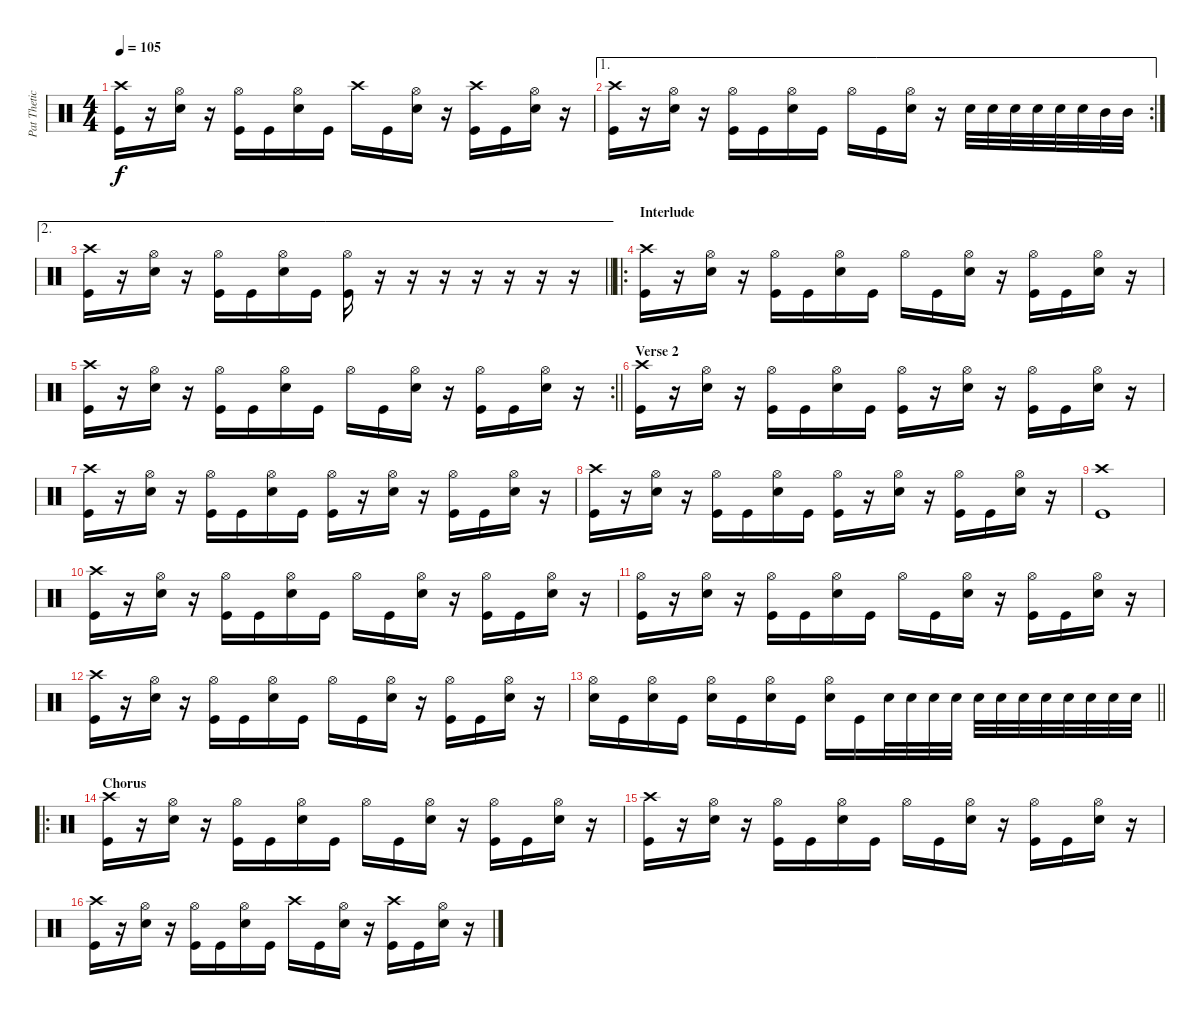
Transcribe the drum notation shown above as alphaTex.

\track ("Pat Thetic" "Pat Thetic") {instrument percussion}
\staff {score}
\articulation defaults
\ts (4 4)
\tempo 105
\clef neutral
\ks c
("Crash high (hit)" "Kick (hit)").16{dy f} r.16 ("Hi-Hat (open)" "Snare (hit) 2").16 r.16 ("Hi-Hat (open)" "Kick (hit)").16 "Kick (hit)".16 ("Hi-Hat (open)" "Snare (hit) 2").16 "Kick (hit)".16 "Crash high (hit)".16 "Kick (hit)".16 ("Hi-Hat (open)" "Snare (hit) 2").16 r.16 ("Crash high (hit)" "Kick (hit)").16 "Kick (hit)".16 ("Hi-Hat (open)" "Snare (hit) 2").16 r.16 |
\ae 1
\rc 2
("Crash high (hit)" "Kick (hit)").16 r.16 ("Hi-Hat (open)" "Snare (hit) 2").16 r.16 ("Hi-Hat (open)" "Kick (hit)").16 "Kick (hit)".16 ("Hi-Hat (open)" "Snare (hit) 2").16 "Kick (hit)".16 "Hi-Hat (open)".16 "Kick (hit)".16 ("Hi-Hat (open)" "Snare (hit) 2").16 r.16 "Snare (hit) 2".32 "Snare (hit) 2".32 "Snare (hit) 2".32 "Electric Snare (hit)".32 "Electric Snare (hit)".32 "Electric Snare (hit)".32 "Mid Tom (hit)".32 "Mid Tom (hit)".32 |
\ae 2
\barLineRight lightlight
("Crash high (hit)" "Kick (hit)").16 r.16 ("Hi-Hat (open)" "Snare (hit) 2").16 r.16 ("Hi-Hat (open)" "Kick (hit)").16 "Kick (hit)".16 ("Hi-Hat (open)" "Snare (hit) 2").16 "Kick (hit)".16 ("Hi-Hat (open)" "Kick (hit)").16 r.16 r.16 r.16 r.16 r.16 r.16 r.16 |
\ro
\section ("" "Interlude")
("Crash high (hit)" "Kick (hit)").16 r.16 ("Hi-Hat (open)" "Snare (hit) 2").16 r.16 ("Hi-Hat (open)" "Kick (hit)").16 "Kick (hit)".16 ("Hi-Hat (open)" "Snare (hit) 2").16 "Kick (hit)".16 "Hi-Hat (open)".16 "Kick (hit)".16 ("Hi-Hat (open)" "Snare (hit) 2").16 r.16 ("Hi-Hat (open)" "Kick (hit)").16 "Kick (hit)".16 ("Hi-Hat (open)" "Snare (hit) 2").16 r.16 |
\rc 2
\barLineRight lightlight
("Crash high (hit)" "Kick (hit)").16 r.16 ("Hi-Hat (open)" "Snare (hit) 2").16 r.16 ("Hi-Hat (open)" "Kick (hit)").16 "Kick (hit)".16 ("Hi-Hat (open)" "Snare (hit) 2").16 "Kick (hit)".16 "Hi-Hat (open)".16 "Kick (hit)".16 ("Hi-Hat (open)" "Snare (hit) 2").16 r.16 ("Hi-Hat (open)" "Kick (hit)").16 "Kick (hit)".16 ("Hi-Hat (open)" "Snare (hit) 2").16 r.16 |
\section ("" "Verse 2")
("Crash high (hit)" "Kick (hit)").16 r.16 ("Hi-Hat (open)" "Snare (hit) 2").16 r.16 ("Hi-Hat (open)" "Kick (hit)").16 "Kick (hit)".16 ("Hi-Hat (open)" "Snare (hit) 2").16 "Kick (hit)".16 ("Hi-Hat (open)" "Kick (hit)").16 r.16 ("Hi-Hat (open)" "Snare (hit) 2").16 r.16 ("Hi-Hat (open)" "Kick (hit)").16 "Kick (hit)".16 ("Hi-Hat (open)" "Snare (hit) 2").16 r.16 |
("Crash high (hit)" "Kick (hit)").16 r.16 ("Hi-Hat (open)" "Snare (hit) 2").16 r.16 ("Hi-Hat (open)" "Kick (hit)").16 "Kick (hit)".16 ("Hi-Hat (open)" "Snare (hit) 2").16 "Kick (hit)".16 ("Hi-Hat (open)" "Kick (hit)").16 r.16 ("Hi-Hat (open)" "Snare (hit) 2").16 r.16 ("Hi-Hat (open)" "Kick (hit)").16 "Kick (hit)".16 ("Hi-Hat (open)" "Snare (hit) 2").16 r.16 |
("Crash high (hit)" "Kick (hit)").16 r.16 ("Hi-Hat (open)" "Snare (hit) 2").16 r.16 ("Hi-Hat (open)" "Kick (hit)").16 "Kick (hit)".16 ("Hi-Hat (open)" "Snare (hit) 2").16 "Kick (hit)".16 ("Hi-Hat (open)" "Kick (hit)").16 r.16 ("Hi-Hat (open)" "Snare (hit) 2").16 r.16 ("Hi-Hat (open)" "Kick (hit)").16 "Kick (hit)".16 ("Hi-Hat (open)" "Snare (hit) 2").16 r.16 |
("Crash high (hit)" "Kick (hit)").1 |
("Crash high (hit)" "Kick (hit)").16 r.16 ("Hi-Hat (open)" "Snare (hit) 2").16 r.16 ("Hi-Hat (open)" "Kick (hit)").16 "Kick (hit)".16 ("Hi-Hat (open)" "Snare (hit) 2").16 "Kick (hit)".16 "Hi-Hat (open)".16 "Kick (hit)".16 ("Hi-Hat (open)" "Snare (hit) 2").16 r.16 ("Hi-Hat (open)" "Kick (hit)").16 "Kick (hit)".16 ("Hi-Hat (open)" "Snare (hit) 2").16 r.16 |
("Hi-Hat (open)" "Kick (hit)").16 r.16 ("Hi-Hat (open)" "Snare (hit) 2").16 r.16 ("Hi-Hat (open)" "Kick (hit)").16 "Kick (hit)".16 ("Hi-Hat (open)" "Snare (hit) 2").16 "Kick (hit)".16 "Hi-Hat (open)".16 "Kick (hit)".16 ("Hi-Hat (open)" "Snare (hit) 2").16 r.16 ("Hi-Hat (open)" "Kick (hit)").16 "Kick (hit)".16 ("Hi-Hat (open)" "Snare (hit) 2").16 r.16 |
("Crash high (hit)" "Kick (hit)").16 r.16 ("Hi-Hat (open)" "Snare (hit) 2").16 r.16 ("Hi-Hat (open)" "Kick (hit)").16 "Kick (hit)".16 ("Hi-Hat (open)" "Snare (hit) 2").16 "Kick (hit)".16 "Hi-Hat (open)".16 "Kick (hit)".16 ("Hi-Hat (open)" "Snare (hit) 2").16 r.16 ("Hi-Hat (open)" "Kick (hit)").16 "Kick (hit)".16 ("Hi-Hat (open)" "Snare (hit) 2").16 r.16 |
\barLineRight lightlight
("Snare (hit) 2" "Hi-Hat (open)").16 "Kick (hit)".16 ("Hi-Hat (open)" "Snare (hit) 2").16 "Kick (hit)".16 ("Hi-Hat (open)" "Snare (hit) 2").16 "Kick (hit)".16 ("Hi-Hat (open)" "Snare (hit) 2").16 "Kick (hit)".16 ("Hi-Hat (open)" "Snare (hit) 2").16 "Kick (hit)".16 "Snare (hit) 2".32 "Snare (hit) 2".32 "Snare (hit) 2".32 "Snare (hit) 2".32 "Snare (hit) 2".32 "Snare (hit) 2".32 "Snare (hit) 2".32 "Snare (hit) 2".32 "Snare (hit) 2".32 "Snare (hit) 2".32 "Snare (hit) 2".32 "Snare (hit) 2".32 |
\ro
\section ("" "Chorus")
("Crash high (hit)" "Kick (hit)").16 r.16 ("Hi-Hat (open)" "Snare (hit) 2").16 r.16 ("Hi-Hat (open)" "Kick (hit)").16 "Kick (hit)".16 ("Hi-Hat (open)" "Snare (hit) 2").16 "Kick (hit)".16 "Hi-Hat (open)".16 "Kick (hit)".16 ("Hi-Hat (open)" "Snare (hit) 2").16 r.16 ("Hi-Hat (open)" "Kick (hit)").16 "Kick (hit)".16 ("Hi-Hat (open)" "Snare (hit) 2").16 r.16 |
("Crash high (hit)" "Kick (hit)").16 r.16 ("Hi-Hat (open)" "Snare (hit) 2").16 r.16 ("Hi-Hat (open)" "Kick (hit)").16 "Kick (hit)".16 ("Hi-Hat (open)" "Snare (hit) 2").16 "Kick (hit)".16 "Hi-Hat (open)".16 "Kick (hit)".16 ("Hi-Hat (open)" "Snare (hit) 2").16 r.16 ("Hi-Hat (open)" "Kick (hit)").16 "Kick (hit)".16 ("Hi-Hat (open)" "Snare (hit) 2").16 r.16 |
("Crash high (hit)" "Kick (hit)").16 r.16 ("Hi-Hat (open)" "Snare (hit) 2").16 r.16 ("Hi-Hat (open)" "Kick (hit)").16 "Kick (hit)".16 ("Hi-Hat (open)" "Snare (hit) 2").16 "Kick (hit)".16 "Crash high (hit)".16 "Kick (hit)".16 ("Hi-Hat (open)" "Snare (hit) 2").16 r.16 ("Crash high (hit)" "Kick (hit)").16 "Kick (hit)".16 ("Hi-Hat (open)" "Snare (hit) 2").16 r.16
